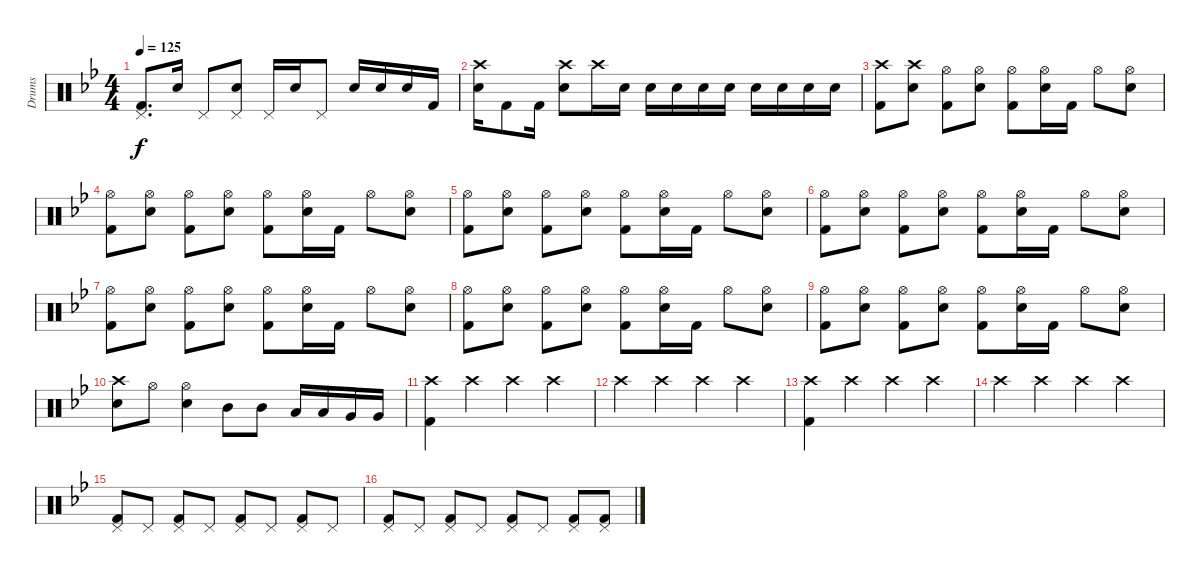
\track ("Drums" "Drums") {instrument percussion}
\staff {score}
\articulation defaults
\ts (4 4)
\tempo 125
\clef neutral
\ks bb
("Pedal Hi-Hat (hit)" "Kick (hit) 2").8{d dy f} "Electric Snare (hit)".16 "Pedal Hi-Hat (hit)".8 ("Pedal Hi-Hat (hit)" "Electric Snare (hit)").8 "Pedal Hi-Hat (hit)".16 "Electric Snare (hit)".16 "Pedal Hi-Hat (hit)".8 "Electric Snare (hit)".16 "Electric Snare (hit)".16 "Electric Snare (hit)".16 "Kick (hit) 2".16 |
("Crash high (hit)" "Electric Snare (hit)").16 "Kick (hit) 2".8 "Kick (hit) 2".16 ("Crash high (hit)" "Electric Snare (hit)").8 "Crash high (hit)".16 "Electric Snare (hit)".16 "Electric Snare (hit)".16 "Electric Snare (hit)".16 "Electric Snare (hit)".16 "Electric Snare (hit)".16 "Electric Snare (hit)".16 "Electric Snare (hit)".16 "Electric Snare (hit)".16 "Electric Snare (hit)".16 |
("Crash high (hit)" "Kick (hit) 2").8 ("Crash high (hit)" "Electric Snare (hit)").8 ("Hi-Hat (open)" "Kick (hit) 2").8 ("Hi-Hat (open)" "Electric Snare (hit)").8 ("Hi-Hat (open)" "Kick (hit) 2").8 ("Hi-Hat (open)" "Electric Snare (hit)").16 "Kick (hit) 2".16 "Hi-Hat (open)".8 ("Hi-Hat (open)" "Electric Snare (hit)").8 |
("Hi-Hat (open)" "Kick (hit) 2").8 ("Hi-Hat (open)" "Electric Snare (hit)").8 ("Hi-Hat (open)" "Kick (hit) 2").8 ("Hi-Hat (open)" "Electric Snare (hit)").8 ("Hi-Hat (open)" "Kick (hit) 2").8 ("Hi-Hat (open)" "Electric Snare (hit)").16 "Kick (hit) 2".16 "Hi-Hat (open)".8 ("Hi-Hat (open)" "Electric Snare (hit)").8 |
("Hi-Hat (open)" "Kick (hit) 2").8 ("Hi-Hat (open)" "Electric Snare (hit)").8 ("Hi-Hat (open)" "Kick (hit) 2").8 ("Hi-Hat (open)" "Electric Snare (hit)").8 ("Hi-Hat (open)" "Kick (hit) 2").8 ("Hi-Hat (open)" "Electric Snare (hit)").16 "Kick (hit) 2".16 "Hi-Hat (open)".8 ("Hi-Hat (open)" "Electric Snare (hit)").8 |
("Hi-Hat (open)" "Kick (hit) 2").8 ("Hi-Hat (open)" "Electric Snare (hit)").8 ("Hi-Hat (open)" "Kick (hit) 2").8 ("Hi-Hat (open)" "Electric Snare (hit)").8 ("Hi-Hat (open)" "Kick (hit) 2").8 ("Hi-Hat (open)" "Electric Snare (hit)").16 "Kick (hit) 2".16 "Hi-Hat (open)".8 ("Hi-Hat (open)" "Electric Snare (hit)").8 |
("Hi-Hat (open)" "Kick (hit) 2").8 ("Hi-Hat (open)" "Electric Snare (hit)").8 ("Hi-Hat (open)" "Kick (hit) 2").8 ("Hi-Hat (open)" "Electric Snare (hit)").8 ("Hi-Hat (open)" "Kick (hit) 2").8 ("Hi-Hat (open)" "Electric Snare (hit)").16 "Kick (hit) 2".16 "Hi-Hat (open)".8 ("Hi-Hat (open)" "Electric Snare (hit)").8 |
("Hi-Hat (open)" "Kick (hit) 2").8 ("Hi-Hat (open)" "Electric Snare (hit)").8 ("Hi-Hat (open)" "Kick (hit) 2").8 ("Hi-Hat (open)" "Electric Snare (hit)").8 ("Hi-Hat (open)" "Kick (hit) 2").8 ("Hi-Hat (open)" "Electric Snare (hit)").16 "Kick (hit) 2".16 "Hi-Hat (open)".8 ("Hi-Hat (open)" "Electric Snare (hit)").8 |
("Hi-Hat (open)" "Kick (hit) 2").8 ("Hi-Hat (open)" "Electric Snare (hit)").8 ("Hi-Hat (open)" "Kick (hit) 2").8 ("Hi-Hat (open)" "Electric Snare (hit)").8 ("Hi-Hat (open)" "Kick (hit) 2").8 ("Hi-Hat (open)" "Electric Snare (hit)").16 "Kick (hit) 2".16 "Hi-Hat (open)".8 ("Hi-Hat (open)" "Electric Snare (hit)").8 |
("Crash high (hit)" "Electric Snare (hit)").8 "Hi-Hat (open)".8 ("Hi-Hat (open)" "Electric Snare (hit)").4 "Mid Tom (hit)".8 "Mid Tom (hit)".8 "Low Tom (hit)".16 "Low Tom (hit)".16 "Very Low Tom (hit)".16 "Very Low Tom (hit)".16 |
("Crash high (hit)" "Kick (hit) 2").4 "Crash high (hit)".4 "Crash high (hit)".4 "Crash high (hit)".4 |
"Crash high (hit)".4 "Crash high (hit)".4 "Crash high (hit)".4 "Crash high (hit)".4 |
("Crash high (hit)" "Kick (hit) 2").4 "Crash high (hit)".4 "Crash high (hit)".4 "Crash high (hit)".4 |
"Crash high (hit)".4 "Crash high (hit)".4 "Crash high (hit)".4 "Crash high (hit)".4 |
("Pedal Hi-Hat (hit)" "Kick (hit) 2").8 "Pedal Hi-Hat (hit)".8 ("Pedal Hi-Hat (hit)" "Kick (hit) 2").8 "Pedal Hi-Hat (hit)".8 ("Pedal Hi-Hat (hit)" "Kick (hit) 2").8 "Pedal Hi-Hat (hit)".8 ("Pedal Hi-Hat (hit)" "Kick (hit) 2").8 "Pedal Hi-Hat (hit)".8 |
("Pedal Hi-Hat (hit)" "Kick (hit) 2").8 "Pedal Hi-Hat (hit)".8 ("Pedal Hi-Hat (hit)" "Kick (hit) 2").8 "Pedal Hi-Hat (hit)".8 ("Pedal Hi-Hat (hit)" "Kick (hit) 2").8 "Pedal Hi-Hat (hit)".8 ("Pedal Hi-Hat (hit)" "Kick (hit) 2").8 ("Pedal Hi-Hat (hit)" "Kick (hit) 2").8
